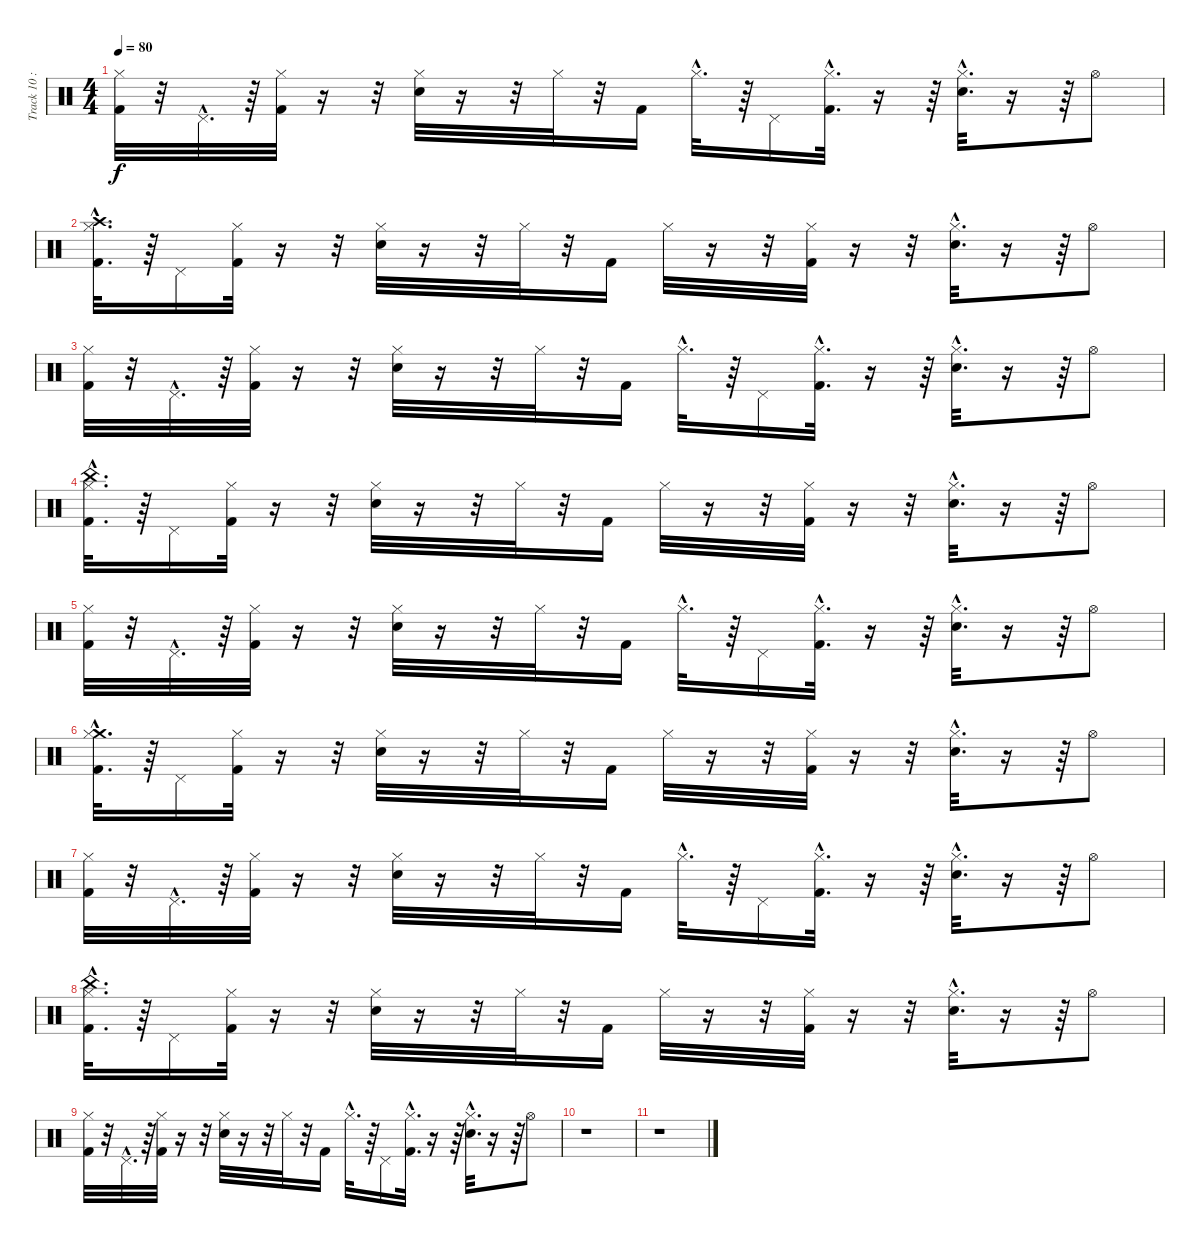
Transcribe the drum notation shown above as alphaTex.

\track ("Track 10 : unspecified" "Track 10 :") {instrument percussion}
\staff {score}
\articulation defaults
\ts (4 4)
\tempo 80
\clef neutral
\ks c
("Kick (hit) 2" "Hi-Hat (closed)").32{dy f} r.32 "Pedal Hi-Hat (hit)"{hac}.32{d} r.64 ("Hi-Hat (closed)" "Kick (hit) 2").32 r.16 r.32 ("Snare (hit) 2" "Hi-Hat (closed)").32 r.16 r.32 "Hi-Hat (closed)".32 r.32 "Kick (hit) 2".16 "Hi-Hat (closed)"{hac}.32{d} r.64 "Pedal Hi-Hat (hit)".16 ("Kick (hit) 2"{hac} "Hi-Hat (closed)"{hac}).32{d} r.16 r.64 ("Hi-Hat (closed)"{hac} "Snare (hit) 2"{hac}).32{d} r.16 r.64 "Hi-Hat (open)".8 |
("Hi-Hat (closed)"{hac} "Kick (hit) 2"{hac} "Crash high (hit)"{hac}).32{d} r.64 "Pedal Hi-Hat (hit)".16 ("Hi-Hat (closed)" "Kick (hit) 2").32 r.16 r.32 ("Snare (hit) 2" "Hi-Hat (closed)").32 r.16 r.32 "Hi-Hat (closed)".32 r.32 "Kick (hit) 2".16 "Hi-Hat (closed)".32 r.16 r.32 ("Hi-Hat (closed)" "Kick (hit) 2").32 r.16 r.32 ("Snare (hit) 2"{hac} "Hi-Hat (closed)"{hac}).32{d} r.16 r.64 "Hi-Hat (open)".8 |
("Hi-Hat (closed)" "Kick (hit) 2").32 r.32 "Pedal Hi-Hat (hit)"{hac}.32{d} r.64 ("Kick (hit) 2" "Hi-Hat (closed)").32 r.16 r.32 ("Hi-Hat (closed)" "Snare (hit) 2").32 r.16 r.32 "Hi-Hat (closed)".32 r.32 "Kick (hit) 2".16 "Hi-Hat (closed)"{hac}.32{d} r.64 "Pedal Hi-Hat (hit)".16 ("Hi-Hat (closed)"{hac} "Kick (hit) 2"{hac}).32{d} r.16 r.64 ("Snare (hit) 2"{hac} "Hi-Hat (closed)"{hac}).32{d} r.16 r.64 "Hi-Hat (open)".8 |
("China (hit)"{hac} "Hi-Hat (closed)"{hac} "Kick (hit) 2"{hac}).32{d} r.64 "Pedal Hi-Hat (hit)".16 ("Hi-Hat (closed)" "Kick (hit) 2").32 r.16 r.32 ("Hi-Hat (closed)" "Snare (hit) 2").32 r.16 r.32 "Hi-Hat (closed)".32 r.32 "Kick (hit) 2".16 "Hi-Hat (closed)".32 r.16 r.32 ("Kick (hit) 2" "Hi-Hat (closed)").32 r.16 r.32 ("Hi-Hat (closed)"{hac} "Snare (hit) 2"{hac}).32{d} r.16 r.64 "Hi-Hat (open)".8 |
("Kick (hit) 2" "Hi-Hat (closed)").32 r.32 "Pedal Hi-Hat (hit)"{hac}.32{d} r.64 ("Kick (hit) 2" "Hi-Hat (closed)").32 r.16 r.32 ("Hi-Hat (closed)" "Snare (hit) 2").32 r.16 r.32 "Hi-Hat (closed)".32 r.32 "Kick (hit) 2".16 "Hi-Hat (closed)"{hac}.32{d} r.64 "Pedal Hi-Hat (hit)".16 ("Kick (hit) 2"{hac} "Hi-Hat (closed)"{hac}).32{d} r.16 r.64 ("Hi-Hat (closed)"{hac} "Snare (hit) 2"{hac}).32{d} r.16 r.64 "Hi-Hat (open)".8 |
("Crash medium (hit)"{hac} "Hi-Hat (closed)"{hac} "Kick (hit) 2"{hac}).32{d} r.64 "Pedal Hi-Hat (hit)".16 ("Hi-Hat (closed)" "Kick (hit) 2").32 r.16 r.32 ("Hi-Hat (closed)" "Snare (hit) 2").32 r.16 r.32 "Hi-Hat (closed)".32 r.32 "Kick (hit) 2".16 "Hi-Hat (closed)".32 r.16 r.32 ("Hi-Hat (closed)" "Kick (hit) 2").32 r.16 r.32 ("Snare (hit) 2"{hac} "Hi-Hat (closed)"{hac}).32{d} r.16 r.64 "Hi-Hat (open)".8 |
("Hi-Hat (closed)" "Kick (hit) 2").32 r.32 "Pedal Hi-Hat (hit)"{hac}.32{d} r.64 ("Kick (hit) 2" "Hi-Hat (closed)").32 r.16 r.32 ("Hi-Hat (closed)" "Snare (hit) 2").32 r.16 r.32 "Hi-Hat (closed)".32 r.32 "Kick (hit) 2".16 "Hi-Hat (closed)"{hac}.32{d} r.64 "Pedal Hi-Hat (hit)".16 ("Hi-Hat (closed)"{hac} "Kick (hit) 2"{hac}).32{d} r.16 r.64 ("Snare (hit) 2"{hac} "Hi-Hat (closed)"{hac}).32{d} r.16 r.64 "Hi-Hat (open)".8 |
("China (hit)"{hac} "Kick (hit) 2"{hac} "Hi-Hat (closed)"{hac}).32{d} r.64 "Pedal Hi-Hat (hit)".16 ("Hi-Hat (closed)" "Kick (hit) 2").32 r.16 r.32 ("Snare (hit) 2" "Hi-Hat (closed)").32 r.16 r.32 "Hi-Hat (closed)".32 r.32 "Kick (hit) 2".16 "Hi-Hat (closed)".32 r.16 r.32 ("Kick (hit) 2" "Hi-Hat (closed)").32 r.16 r.32 ("Hi-Hat (closed)"{hac} "Snare (hit) 2"{hac}).32{d} r.16 r.64 "Hi-Hat (open)".8 |
("Hi-Hat (closed)" "Kick (hit) 2").32 r.32 "Pedal Hi-Hat (hit)"{hac}.32{d} r.64 ("Kick (hit) 2" "Hi-Hat (closed)").32 r.16 r.32 ("Snare (hit) 2" "Hi-Hat (closed)").32 r.16 r.32 "Hi-Hat (closed)".32 r.32 "Kick (hit) 2".16 "Hi-Hat (closed)"{hac}.32{d} r.64 "Pedal Hi-Hat (hit)".16 ("Kick (hit) 2"{hac} "Hi-Hat (closed)"{hac}).32{d} r.16 r.64 ("Snare (hit) 2"{hac} "Hi-Hat (closed)"{hac}).32{d} r.16 r.64 "Hi-Hat (open)".8 |
r.1 |
r.1
